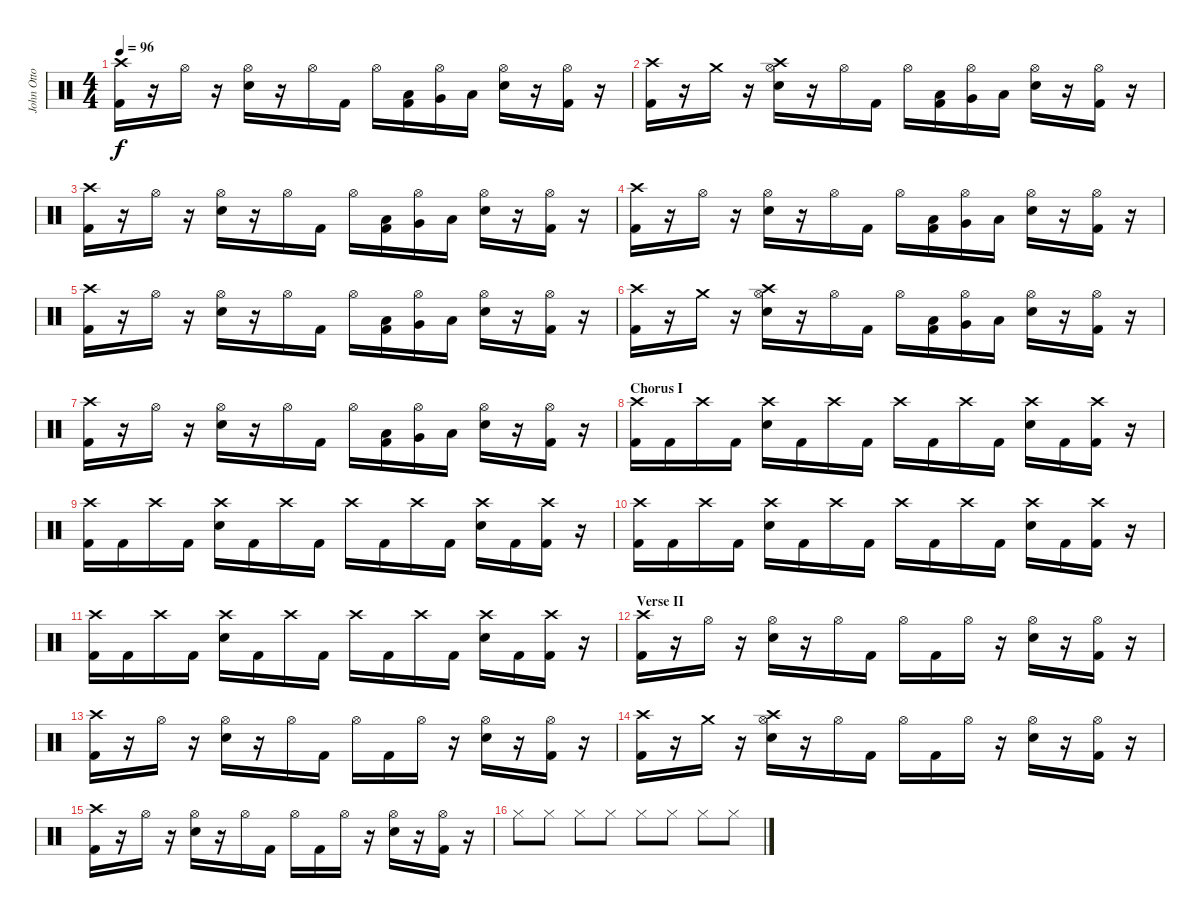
\track ("John Otto - Drums" "John Otto ") {instrument percussion}
\staff {score}
\articulation defaults
\ts (4 4)
\tempo 96
\clef neutral
\ks c
("Crash high (hit)" "Kick (hit) 2").16{dy f} r.16 "Hi-Hat (open)".16 r.16 ("Hi-Hat (open)" "Snare (hit) 2").16 r.16 "Hi-Hat (open)".16 "Kick (hit) 2".16 "Hi-Hat (open)".16 ("Low Tom (hit)" "Kick (hit) 2").16 ("Hi-Hat (open)" "Very Low Tom (hit)").16 "Low Floor Tom (hit)".16 ("Hi-Hat (open)" "Snare (hit) 2").16 r.16 ("Hi-Hat (open)" "Kick (hit) 2").16 r.16 |
("Crash high (hit)" "Kick (hit) 2").16 r.16 "Crash medium (hit)".16 r.16 ("Crash high (hit)" "Hi-Hat (open)" "Snare (hit) 2").16 r.16 "Hi-Hat (open)".16 "Kick (hit) 2".16 "Hi-Hat (open)".16 ("Low Tom (hit)" "Kick (hit) 2").16 ("Hi-Hat (open)" "Very Low Tom (hit)").16 "Low Floor Tom (hit)".16 ("Hi-Hat (open)" "Snare (hit) 2").16 r.16 ("Hi-Hat (open)" "Kick (hit) 2").16 r.16 |
("Crash high (hit)" "Kick (hit) 2").16 r.16 "Hi-Hat (open)".16 r.16 ("Hi-Hat (open)" "Snare (hit) 2").16 r.16 "Hi-Hat (open)".16 "Kick (hit) 2".16 "Hi-Hat (open)".16 ("Low Tom (hit)" "Kick (hit) 2").16 ("Hi-Hat (open)" "Very Low Tom (hit)").16 "Low Floor Tom (hit)".16 ("Hi-Hat (open)" "Snare (hit) 2").16 r.16 ("Hi-Hat (open)" "Kick (hit) 2").16 r.16 |
("Crash high (hit)" "Kick (hit) 2").16 r.16 "Hi-Hat (open)".16 r.16 ("Hi-Hat (open)" "Snare (hit) 2").16 r.16 "Hi-Hat (open)".16 "Kick (hit) 2".16 "Hi-Hat (open)".16 ("Low Tom (hit)" "Kick (hit) 2").16 ("Hi-Hat (open)" "Very Low Tom (hit)").16 "Low Floor Tom (hit)".16 ("Hi-Hat (open)" "Snare (hit) 2").16 r.16 ("Hi-Hat (open)" "Kick (hit) 2").16 r.16 |
("Crash high (hit)" "Kick (hit) 2").16 r.16 "Hi-Hat (open)".16 r.16 ("Hi-Hat (open)" "Snare (hit) 2").16 r.16 "Hi-Hat (open)".16 "Kick (hit) 2".16 "Hi-Hat (open)".16 ("Low Tom (hit)" "Kick (hit) 2").16 ("Hi-Hat (open)" "Very Low Tom (hit)").16 "Low Floor Tom (hit)".16 ("Hi-Hat (open)" "Snare (hit) 2").16 r.16 ("Hi-Hat (open)" "Kick (hit) 2").16 r.16 |
("Crash high (hit)" "Kick (hit) 2").16 r.16 "Crash medium (hit)".16 r.16 ("Crash high (hit)" "Hi-Hat (open)" "Snare (hit) 2").16 r.16 "Hi-Hat (open)".16 "Kick (hit) 2".16 "Hi-Hat (open)".16 ("Low Tom (hit)" "Kick (hit) 2").16 ("Hi-Hat (open)" "Very Low Tom (hit)").16 "Low Floor Tom (hit)".16 ("Hi-Hat (open)" "Snare (hit) 2").16 r.16 ("Hi-Hat (open)" "Kick (hit) 2").16 r.16 |
("Crash high (hit)" "Kick (hit) 2").16 r.16 "Hi-Hat (open)".16 r.16 ("Hi-Hat (open)" "Snare (hit) 2").16 r.16 "Hi-Hat (open)".16 "Kick (hit) 2".16 "Hi-Hat (open)".16 ("Low Tom (hit)" "Kick (hit) 2").16 ("Hi-Hat (open)" "Very Low Tom (hit)").16 "Low Floor Tom (hit)".16 ("Hi-Hat (open)" "Snare (hit) 2").16 r.16 ("Hi-Hat (open)" "Kick (hit) 2").16 r.16 |
\section ("" "Chorus I")
("Crash high (hit)" "Kick (hit) 2").16 "Kick (hit) 2".16 "Crash high (hit)".16 "Kick (hit) 2".16 ("Crash high (hit)" "Snare (hit) 2").16 "Kick (hit) 2".16 "Crash high (hit)".16 "Kick (hit) 2".16 "Crash high (hit)".16 "Kick (hit) 2".16 "Crash high (hit)".16 "Kick (hit) 2".16 ("Crash high (hit)" "Snare (hit) 2").16 "Kick (hit) 2".16 ("Crash high (hit)" "Kick (hit) 2").16 r.16 |
("Crash high (hit)" "Kick (hit) 2").16 "Kick (hit) 2".16 "Crash high (hit)".16 "Kick (hit) 2".16 ("Crash high (hit)" "Snare (hit) 2").16 "Kick (hit) 2".16 "Crash high (hit)".16 "Kick (hit) 2".16 "Crash high (hit)".16 "Kick (hit) 2".16 "Crash high (hit)".16 "Kick (hit) 2".16 ("Crash high (hit)" "Snare (hit) 2").16 "Kick (hit) 2".16 ("Crash high (hit)" "Kick (hit) 2").16 r.16 |
("Crash high (hit)" "Kick (hit) 2").16 "Kick (hit) 2".16 "Crash high (hit)".16 "Kick (hit) 2".16 ("Crash high (hit)" "Snare (hit) 2").16 "Kick (hit) 2".16 "Crash high (hit)".16 "Kick (hit) 2".16 "Crash high (hit)".16 "Kick (hit) 2".16 "Crash high (hit)".16 "Kick (hit) 2".16 ("Crash high (hit)" "Snare (hit) 2").16 "Kick (hit) 2".16 ("Crash high (hit)" "Kick (hit) 2").16 r.16 |
("Crash high (hit)" "Kick (hit) 2").16 "Kick (hit) 2".16 "Crash high (hit)".16 "Kick (hit) 2".16 ("Crash high (hit)" "Snare (hit) 2").16 "Kick (hit) 2".16 "Crash high (hit)".16 "Kick (hit) 2".16 "Crash high (hit)".16 "Kick (hit) 2".16 "Crash high (hit)".16 "Kick (hit) 2".16 ("Crash high (hit)" "Snare (hit) 2").16 "Kick (hit) 2".16 ("Crash high (hit)" "Kick (hit) 2").16 r.16 |
\section ("" "Verse II")
("Crash high (hit)" "Kick (hit) 2").16 r.16 "Hi-Hat (open)".16 r.16 ("Hi-Hat (open)" "Snare (hit) 2").16 r.16 "Hi-Hat (open)".16 "Kick (hit) 2".16 "Hi-Hat (open)".16 "Kick (hit) 2".16 "Hi-Hat (open)".16 r.16 ("Hi-Hat (open)" "Snare (hit) 2").16 r.16 ("Hi-Hat (open)" "Kick (hit) 2").16 r.16 |
("Crash high (hit)" "Kick (hit) 2").16 r.16 "Hi-Hat (open)".16 r.16 ("Hi-Hat (open)" "Snare (hit) 2").16 r.16 "Hi-Hat (open)".16 "Kick (hit) 2".16 "Hi-Hat (open)".16 "Kick (hit) 2".16 "Hi-Hat (open)".16 r.16 ("Hi-Hat (open)" "Snare (hit) 2").16 r.16 ("Hi-Hat (open)" "Kick (hit) 2").16 r.16 |
("Crash high (hit)" "Kick (hit) 2").16 r.16 "Crash medium (hit)".16 r.16 ("Crash high (hit)" "Hi-Hat (open)" "Snare (hit) 2").16 r.16 "Hi-Hat (open)".16 "Kick (hit) 2".16 "Hi-Hat (open)".16 "Kick (hit) 2".16 "Hi-Hat (open)".16 r.16 ("Hi-Hat (open)" "Snare (hit) 2").16 r.16 ("Hi-Hat (open)" "Kick (hit) 2").16 r.16 |
("Crash high (hit)" "Kick (hit) 2").16 r.16 "Hi-Hat (open)".16 r.16 ("Hi-Hat (open)" "Snare (hit) 2").16 r.16 "Hi-Hat (open)".16 "Kick (hit) 2".16 "Hi-Hat (open)".16 "Kick (hit) 2".16 "Hi-Hat (open)".16 r.16 ("Hi-Hat (open)" "Snare (hit) 2").16 r.16 ("Hi-Hat (open)" "Kick (hit) 2").16 r.16 |
"Hi-Hat (closed)".8 "Hi-Hat (closed)".8 "Hi-Hat (closed)".8 "Hi-Hat (closed)".8 "Hi-Hat (closed)".8 "Hi-Hat (closed)".8 "Hi-Hat (closed)".8 "Hi-Hat (closed)".8
